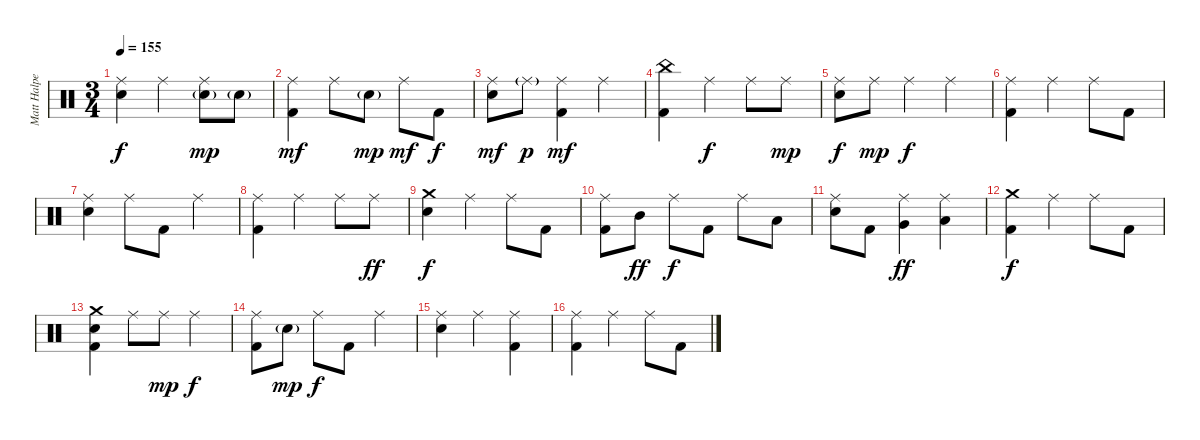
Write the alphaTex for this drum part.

\track ("Matt Halpern - Drums" "Matt Halpe") {instrument percussion}
\staff {score}
\articulation defaults
\ts (3 4)
\tempo 155
\clef neutral
\ks c
("Ride (middle)" "Electric Snare (hit)").4{dy f} "Ride (middle)".4 ("Ride (middle)" "Electric Snare (hit)"{g}).8{dy mp} "Electric Snare (hit)"{g}.8 |
("Ride (middle)" "Kick (hit) 2").4{dy mf} "Ride (middle)".8 "Electric Snare (hit)"{g}.8{dy mp} "Ride (middle)".8{dy mf} "Kick (hit) 2".8{dy f} |
("Ride (middle)" "Electric Snare (hit)").8{dy mf} "Ride (middle)"{g}.8{dy p} ("Ride (middle)" "Kick (hit) 2").4{dy mf} "Ride (middle)".4 |
("China (hit)" "Kick (hit) 2").4 "Ride (middle)".4{dy f} "Ride (middle)".8 "Ride (middle)".8{dy mp} |
("Ride (middle)" "Electric Snare (hit)").8{dy f} "Ride (middle)".8{dy mp} "Ride (middle)".4{dy f} "Ride (middle)".4 |
("Ride (middle)" "Kick (hit) 2").4 "Ride (middle)".4 "Ride (middle)".8 "Kick (hit) 2".8 |
("Ride (middle)" "Electric Snare (hit)").4 "Ride (middle)".8 "Kick (hit) 2".8 "Ride (middle)".4 |
("Ride (middle)" "Kick (hit) 2").4 "Ride (middle)".4 "Ride (middle)".8 "Ride (middle)".8{dy ff} |
("Crash medium (hit)" "Electric Snare (hit)").4{dy f} "Ride (middle)".4 "Ride (middle)".8 "Kick (hit) 2".8 |
("Ride (middle)" "Kick (hit) 2").8 "Mid Tom (hit)".8{dy ff} "Ride (middle)".8{dy f} "Kick (hit) 2".8 "Ride (middle)".8 "Low Tom (hit)".8 |
("Ride (middle)" "Electric Snare (hit)").8 "Kick (hit) 2".8 ("Ride (middle)" "Very Low Tom (hit)").4{dy ff} ("Ride (middle)" "Low Floor Tom (hit)").4 |
("Crash medium (hit)" "Kick (hit) 2").4{dy f} "Ride (middle)".4 "Ride (middle)".8 "Kick (hit) 2".8 |
("Crash medium (hit)" "Electric Snare (hit)" "Kick (hit) 2").4 "Ride (middle)".8 "Ride (middle)".8{dy mp} "Ride (middle)".4{dy f} |
("Ride (middle)" "Kick (hit) 2").8 "Electric Snare (hit)"{g}.8{dy mp} "Ride (middle)".8{dy f} "Kick (hit) 2".8 "Ride (middle)".4 |
("Ride (middle)" "Electric Snare (hit)").4 "Ride (middle)".4 ("Ride (middle)" "Kick (hit) 2").4 |
("Ride (middle)" "Kick (hit) 2").4 "Ride (middle)".4 "Ride (middle)".8 "Kick (hit) 2".8
